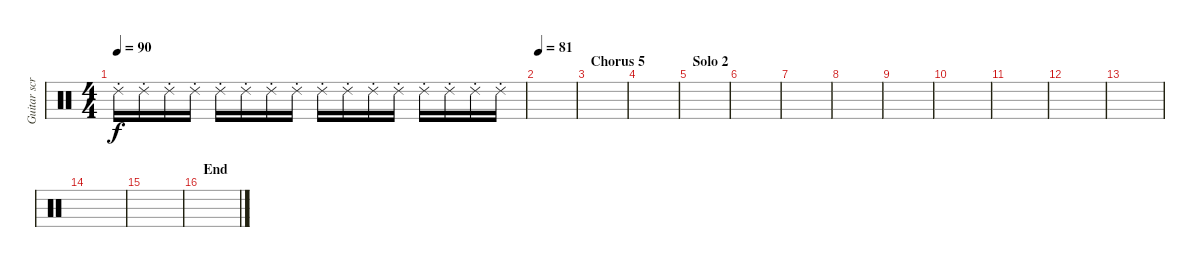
\track ("Guitar scratching" "Guitar scr") {instrument percussion}
\staff {score}
\articulation defaults
\ts (4 4)
\tempo 90
\clef neutral
\ks c "Ride (choke) 2".16{dy f} "Ride (choke) 2".16 "Ride (choke) 2".16 "Ride (choke) 2".16 "Ride (choke) 2".16 "Ride (choke) 2".16 "Ride (choke) 2".16 "Ride (choke) 2".16 "Ride (choke) 2".16 "Ride (choke) 2".16 "Ride (choke) 2".16 "Ride (choke) 2".16 "Ride (choke) 2".16 "Ride (choke) 2".16 "Ride (choke) 2".16 "Ride (choke) 2".16
|
\tempo 81
|
\section ("" "Chorus 5")
|
|
\section ("" "Solo 2")
|
|
|
|
|
|
|
|
|
|
|
\section ("" "End")
